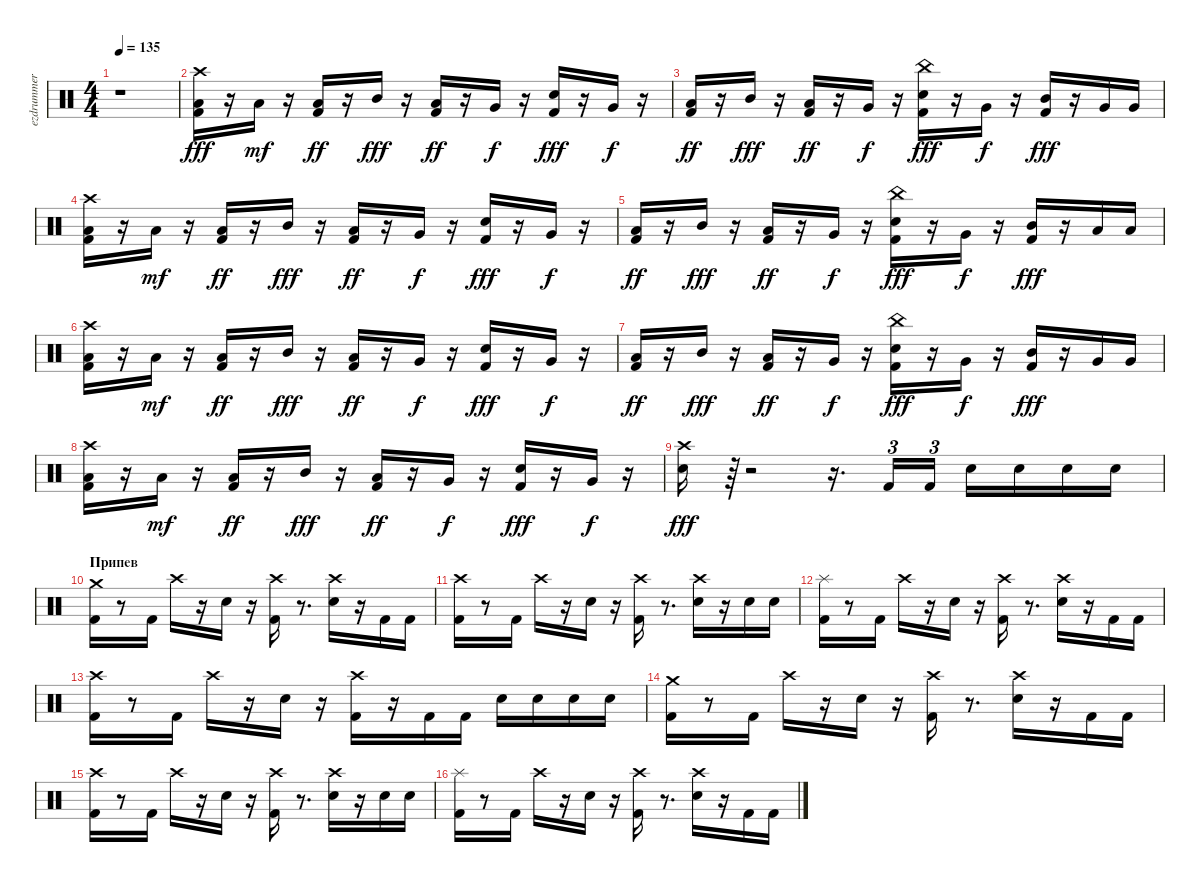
\track ("ezdrummer" "ezdrummer") {instrument percussion}
\staff {score}
\articulation defaults
\ts (4 4)
\tempo 135
\clef neutral
\ks c
r.1{dy fff} |
("Kick (hit) 2" "Low Tom (hit)" "Crash high (hit)").16 r.16 "Low Tom (hit)".16{dy mf} r.16 ("Kick (hit) 2" "Low Tom (hit)").16{dy ff} r.16 "Mid Tom (hit)".16{dy fff} r.16 ("Kick (hit) 2" "Low Tom (hit)").16{dy ff} r.16 "Very Low Tom (hit)".16{dy f} r.16 ("Kick (hit) 2" "Snare (hit) 2").16{dy fff} r.16 "Very Low Tom (hit)".16{dy f} r.16 |
("Kick (hit) 2" "Low Tom (hit)").16{dy ff} r.16 "Mid Tom (hit)".16{dy fff} r.16 ("Kick (hit) 2" "Low Tom (hit)").16{dy ff} r.16 "Very Low Tom (hit)".16{dy f} r.16 ("Kick (hit) 2" "Snare (hit) 2" "China (hit)").16{dy fff} r.16 "Very Low Tom (hit)".16{dy f} r.16 ("Kick (hit) 2" "Mid Tom (hit)").16{dy fff} r.16 "Very Low Tom (hit)".16 "Very Low Tom (hit)".16 |
("Kick (hit) 2" "Low Tom (hit)" "Crash high (hit)").16 r.16 "Low Tom (hit)".16{dy mf} r.16 ("Kick (hit) 2" "Low Tom (hit)").16{dy ff} r.16 "Mid Tom (hit)".16{dy fff} r.16 ("Kick (hit) 2" "Low Tom (hit)").16{dy ff} r.16 "Very Low Tom (hit)".16{dy f} r.16 ("Kick (hit) 2" "Snare (hit) 2").16{dy fff} r.16 "Very Low Tom (hit)".16{dy f} r.16 |
("Kick (hit) 2" "Low Tom (hit)").16{dy ff} r.16 "Mid Tom (hit)".16{dy fff} r.16 ("Kick (hit) 2" "Low Tom (hit)").16{dy ff} r.16 "Very Low Tom (hit)".16{dy f} r.16 ("Kick (hit) 2" "Snare (hit) 2" "China (hit)").16{dy fff} r.16 "Very Low Tom (hit)".16{dy f} r.16 ("Kick (hit) 2" "Mid Tom (hit)").16{dy fff} r.16 "Low Floor Tom (hit)".16 "Low Floor Tom (hit)".16 |
("Kick (hit) 2" "Low Tom (hit)" "Crash high (hit)").16 r.16 "Low Tom (hit)".16{dy mf} r.16 ("Kick (hit) 2" "Low Tom (hit)").16{dy ff} r.16 "Mid Tom (hit)".16{dy fff} r.16 ("Kick (hit) 2" "Low Tom (hit)").16{dy ff} r.16 "Very Low Tom (hit)".16{dy f} r.16 ("Kick (hit) 2" "Snare (hit) 2").16{dy fff} r.16 "Very Low Tom (hit)".16{dy f} r.16 |
("Kick (hit) 2" "Low Tom (hit)").16{dy ff} r.16 "Mid Tom (hit)".16{dy fff} r.16 ("Kick (hit) 2" "Low Tom (hit)").16{dy ff} r.16 "Very Low Tom (hit)".16{dy f} r.16 ("Kick (hit) 2" "Snare (hit) 2" "China (hit)").16{dy fff} r.16 "Very Low Tom (hit)".16{dy f} r.16 ("Kick (hit) 2" "Mid Tom (hit)").16{dy fff} r.16 "Very Low Tom (hit)".16 "Very Low Tom (hit)".16 |
("Kick (hit) 2" "Low Tom (hit)" "Crash high (hit)").16 r.16 "Low Tom (hit)".16{dy mf} r.16 ("Kick (hit) 2" "Low Tom (hit)").16{dy ff} r.16 "Mid Tom (hit)".16{dy fff} r.16 ("Kick (hit) 2" "Low Tom (hit)").16{dy ff} r.16 "Very Low Tom (hit)".16{dy f} r.16 ("Kick (hit) 2" "Snare (hit) 2").16{dy fff} r.16 "Very Low Tom (hit)".16{dy f} r.16 |
("Snare (hit) 2" "Crash high (hit)").16{dy fff} r.64{tu (3 2)} r.2 r.16{d} "Kick (hit) 2".16{tu (3 2)} "Kick (hit) 2".16{tu (3 2)} "Snare (hit) 2".16 "Snare (hit) 2".16 "Snare (hit) 2".16 "Snare (hit) 2".16 |
\section ("" "Припев")
("Kick (hit) 2" "Crash medium (hit)").16 r.8 "Kick (hit) 2".16 "Crash high (hit)".16 r.16 "Snare (hit) 2".16 r.16 ("Kick (hit) 2" "Crash high (hit)").16 r.8{d} ("Snare (hit) 2" "Crash high (hit)").16 r.16 "Kick (hit) 2".16 "Kick (hit) 2".16 |
("Kick (hit) 2" "Crash high (hit)").16 r.8 "Kick (hit) 2".16 "Crash high (hit)".16 r.16 "Snare (hit) 2".16 r.16 ("Kick (hit) 2" "Crash high (hit)").16 r.8{d} ("Snare (hit) 2" "Crash high (hit)").16 r.16 "Snare (hit) 2".16 "Snare (hit) 2".16 |
("Kick (hit) 2" "Splash (hit)").16 r.8 "Kick (hit) 2".16 "Crash high (hit)".16 r.16 "Snare (hit) 2".16 r.16 ("Kick (hit) 2" "Crash high (hit)").16 r.8{d} ("Snare (hit) 2" "Crash high (hit)").16 r.16 "Kick (hit) 2".16 "Kick (hit) 2".16 |
("Kick (hit) 2" "Crash high (hit)").16 r.8 "Kick (hit) 2".16 "Crash high (hit)".16 r.16 "Snare (hit) 2".16 r.16 ("Kick (hit) 2" "Crash high (hit)").16 r.16 "Kick (hit) 2".16 "Kick (hit) 2".16 "Snare (hit) 2".16 "Snare (hit) 2".16 "Snare (hit) 2".16 "Snare (hit) 2".16 |
("Kick (hit) 2" "Crash medium (hit)").16 r.8 "Kick (hit) 2".16 "Crash high (hit)".16 r.16 "Snare (hit) 2".16 r.16 ("Kick (hit) 2" "Crash high (hit)").16 r.8{d} ("Snare (hit) 2" "Crash high (hit)").16 r.16 "Kick (hit) 2".16 "Kick (hit) 2".16 |
("Kick (hit) 2" "Crash high (hit)").16 r.8 "Kick (hit) 2".16 "Crash high (hit)".16 r.16 "Snare (hit) 2".16 r.16 ("Kick (hit) 2" "Crash high (hit)").16 r.8{d} ("Snare (hit) 2" "Crash high (hit)").16 r.16 "Snare (hit) 2".16 "Snare (hit) 2".16 |
("Kick (hit) 2" "Splash (hit)").16 r.8 "Kick (hit) 2".16 "Crash high (hit)".16 r.16 "Snare (hit) 2".16 r.16 ("Kick (hit) 2" "Crash high (hit)").16 r.8{d} ("Snare (hit) 2" "Crash high (hit)").16 r.16 "Kick (hit) 2".16 "Kick (hit) 2".16
